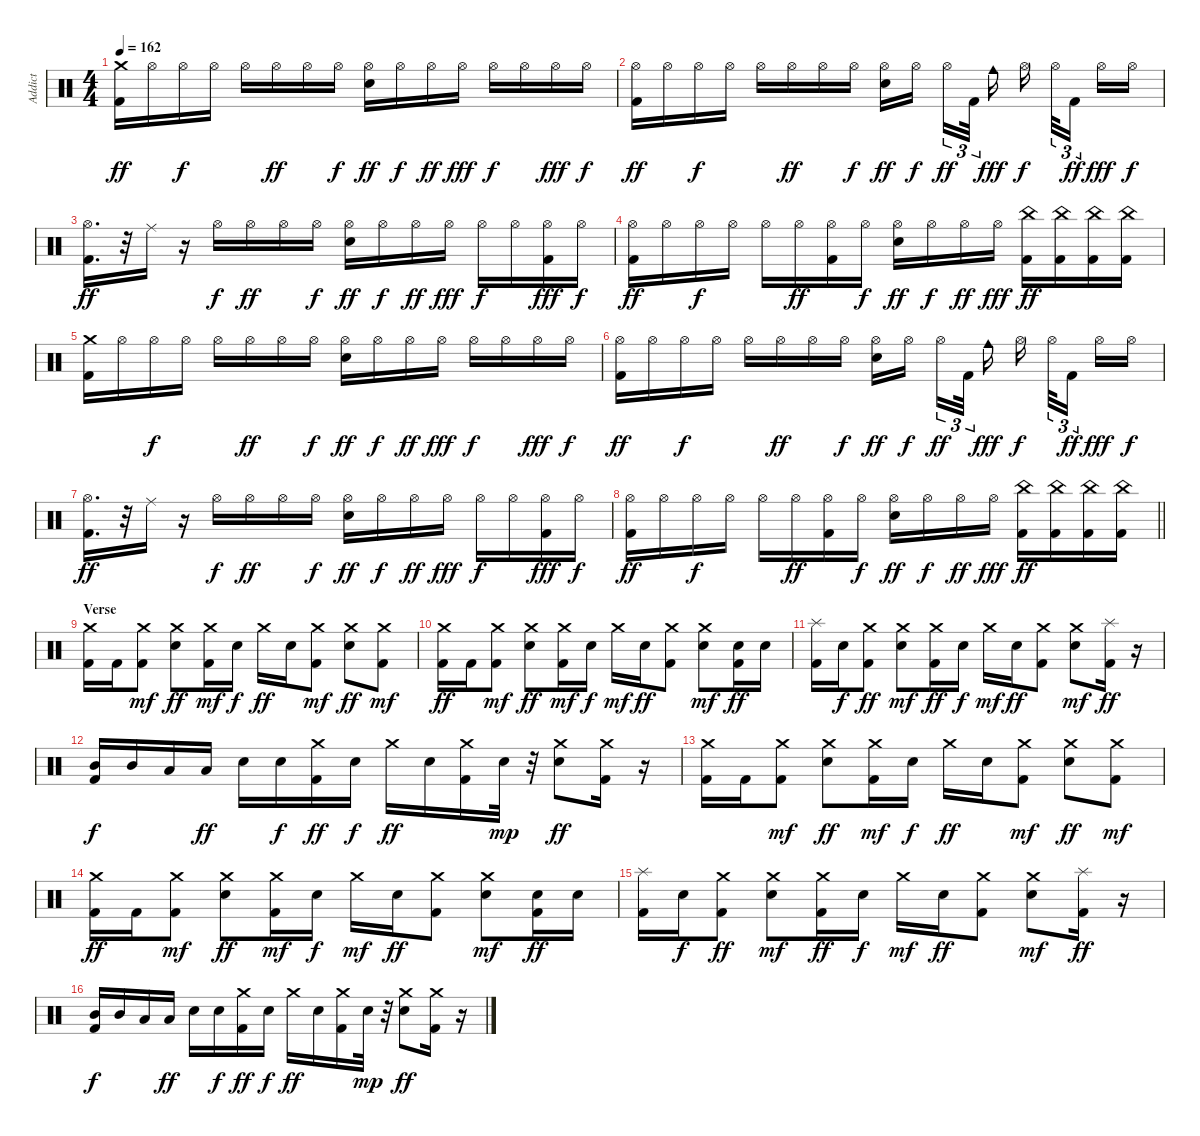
\track ("Addict" "Addict") {instrument percussion}
\staff {score}
\articulation defaults
\ts (4 4)
\tempo 162
\clef neutral
\ks c
("Kick (hit) 2" "Crash medium (hit)").16{dy ff} "Hi-Hat (open)".16 "Hi-Hat (open)".16{dy f} "Hi-Hat (open)".16 "Hi-Hat (open)".16 "Hi-Hat (open)".16{dy ff} "Hi-Hat (open)".16 "Hi-Hat (open)".16{dy f} ("Snare (hit) 2" "Hi-Hat (open)").16{dy ff} "Hi-Hat (open)".16{dy f} "Hi-Hat (open)".16{dy ff} "Hi-Hat (open)".16{dy fff} "Hi-Hat (open)".16{dy f} "Hi-Hat (open)".16 "Hi-Hat (open)".16{dy fff} "Hi-Hat (open)".16{dy f} |
("Kick (hit) 2" "Hi-Hat (open)").16{dy ff} "Hi-Hat (open)".16 "Hi-Hat (open)".16{dy f} "Hi-Hat (open)".16 "Hi-Hat (open)".16 "Hi-Hat (open)".16{dy ff} "Hi-Hat (open)".16 "Hi-Hat (open)".16{dy f} ("Snare (hit) 2" "Hi-Hat (open)").16{dy ff} "Hi-Hat (open)".16{dy f beam splitsecondary} "Hi-Hat (open)".16{tu (3 2) dy ff} "Kick (hit) 2".32{tu (3 2) beam splitsecondary} "Cowbell medium (hit)".16{dy fff} "Hi-Hat (open)".16{dy f beam splitsecondary} "Hi-Hat (open)".32{tu (3 2)} "Kick (hit) 2".16{tu (3 2) dy ff beam splitsecondary} "Hi-Hat (open)".16{dy fff} "Hi-Hat (open)".16{dy f} |
("Kick (hit) 2" "Hi-Hat (open)").16{d dy ff} r.32 "Ride (middle)".16 r.16 "Hi-Hat (open)".16{dy f} "Hi-Hat (open)".16{dy ff} "Hi-Hat (open)".16 "Hi-Hat (open)".16{dy f} ("Snare (hit) 2" "Hi-Hat (open)").16{dy ff} "Hi-Hat (open)".16{dy f} "Hi-Hat (open)".16{dy ff} "Hi-Hat (open)".16{dy fff} "Hi-Hat (open)".16{dy f} "Hi-Hat (open)".16 ("Kick (hit) 2" "Hi-Hat (open)").16{dy fff} "Hi-Hat (open)".16{dy f} |
("Kick (hit) 2" "Hi-Hat (open)").16{dy ff} "Hi-Hat (open)".16 "Hi-Hat (open)".16{dy f} "Hi-Hat (open)".16 "Hi-Hat (open)".16 "Hi-Hat (open)".16{dy ff} ("Kick (hit) 2" "Hi-Hat (open)").16 "Hi-Hat (open)".16{dy f} ("Snare (hit) 2" "Hi-Hat (open)").16{dy ff} "Hi-Hat (open)".16{dy f} "Hi-Hat (open)".16{dy ff} "Hi-Hat (open)".16{dy fff} ("Kick (hit) 2" "China (hit)").16{dy ff} ("Kick (hit) 2" "China (hit)").16 ("Kick (hit) 2" "China (hit)").16 ("Kick (hit) 2" "China (hit)").16 |
("Kick (hit) 2" "Crash medium (hit)").16 "Hi-Hat (open)".16 "Hi-Hat (open)".16{dy f} "Hi-Hat (open)".16 "Hi-Hat (open)".16 "Hi-Hat (open)".16{dy ff} "Hi-Hat (open)".16 "Hi-Hat (open)".16{dy f} ("Snare (hit) 2" "Hi-Hat (open)").16{dy ff} "Hi-Hat (open)".16{dy f} "Hi-Hat (open)".16{dy ff} "Hi-Hat (open)".16{dy fff} "Hi-Hat (open)".16{dy f} "Hi-Hat (open)".16 "Hi-Hat (open)".16{dy fff} "Hi-Hat (open)".16{dy f} |
("Kick (hit) 2" "Hi-Hat (open)").16{dy ff} "Hi-Hat (open)".16 "Hi-Hat (open)".16{dy f} "Hi-Hat (open)".16 "Hi-Hat (open)".16 "Hi-Hat (open)".16{dy ff} "Hi-Hat (open)".16 "Hi-Hat (open)".16{dy f} ("Snare (hit) 2" "Hi-Hat (open)").16{dy ff} "Hi-Hat (open)".16{dy f beam splitsecondary} "Hi-Hat (open)".16{tu (3 2) dy ff} "Kick (hit) 2".32{tu (3 2) beam splitsecondary} "Cowbell medium (hit)".16{dy fff} "Hi-Hat (open)".16{dy f beam splitsecondary} "Hi-Hat (open)".32{tu (3 2)} "Kick (hit) 2".16{tu (3 2) dy ff beam splitsecondary} "Hi-Hat (open)".16{dy fff} "Hi-Hat (open)".16{dy f} |
("Kick (hit) 2" "Hi-Hat (open)").16{d dy ff} r.32 "Ride (middle)".16 r.16 "Hi-Hat (open)".16{dy f} "Hi-Hat (open)".16{dy ff} "Hi-Hat (open)".16 "Hi-Hat (open)".16{dy f} ("Snare (hit) 2" "Hi-Hat (open)").16{dy ff} "Hi-Hat (open)".16{dy f} "Hi-Hat (open)".16{dy ff} "Hi-Hat (open)".16{dy fff} "Hi-Hat (open)".16{dy f} "Hi-Hat (open)".16 ("Kick (hit) 2" "Hi-Hat (open)").16{dy fff} "Hi-Hat (open)".16{dy f} |
\barLineRight lightlight
("Kick (hit) 2" "Hi-Hat (open)").16{dy ff} "Hi-Hat (open)".16 "Hi-Hat (open)".16{dy f} "Hi-Hat (open)".16 "Hi-Hat (open)".16 "Hi-Hat (open)".16{dy ff} ("Kick (hit) 2" "Hi-Hat (open)").16 "Hi-Hat (open)".16{dy f} ("Snare (hit) 2" "Hi-Hat (open)").16{dy ff} "Hi-Hat (open)".16{dy f} "Hi-Hat (open)".16{dy ff} "Hi-Hat (open)".16{dy fff} ("Kick (hit) 2" "China (hit)").16{dy ff} ("Kick (hit) 2" "China (hit)").16 ("Kick (hit) 2" "China (hit)").16 ("Kick (hit) 2" "China (hit)").16 |
\section ("" "Verse")
("Kick (hit) 2" "Crash medium (hit)").16 "Kick (hit) 2".16 ("Kick (hit) 2" "Crash medium (hit)").8{dy mf} ("Snare (hit) 2" "Crash medium (hit)").8{dy ff} ("Kick (hit) 2" "Crash medium (hit)").16{dy mf} "Snare (hit) 2".16{dy f} "Crash medium (hit)".16{dy ff} "Snare (hit) 2".16 ("Kick (hit) 2" "Crash medium (hit)").8{dy mf} ("Snare (hit) 2" "Crash medium (hit)").8{dy ff} ("Kick (hit) 2" "Crash medium (hit)").8{dy mf} |
("Kick (hit) 2" "Crash medium (hit)").16{dy ff} "Kick (hit) 2".16 ("Kick (hit) 2" "Crash medium (hit)").8{dy mf} ("Snare (hit) 2" "Crash medium (hit)").8{dy ff} ("Kick (hit) 2" "Crash medium (hit)").16{dy mf} "Snare (hit) 2".16{dy f} "Crash medium (hit)".16{dy mf} "Snare (hit) 2".16{dy ff} ("Kick (hit) 2" "Crash medium (hit)").8 ("Snare (hit) 2" "Crash medium (hit)").8{dy mf} ("Kick (hit) 2" "Snare (hit) 2").16{dy ff} "Snare (hit) 2".16 |
("Kick (hit) 2" "Splash (hit)").16 "Snare (hit) 2".16{dy f} ("Kick (hit) 2" "Crash medium (hit)").8{dy ff} ("Snare (hit) 2" "Crash medium (hit)").8{dy mf} ("Kick (hit) 2" "Crash medium (hit)").16{dy ff} "Snare (hit) 2".16{dy f} "Crash medium (hit)".16{dy mf} "Snare (hit) 2".16{dy ff} ("Kick (hit) 2" "Crash medium (hit)").8 ("Snare (hit) 2" "Crash medium (hit)").8{dy mf} ("Kick (hit) 2" "Splash (hit)").16{dy ff} r.16 |
("Kick (hit) 2" "Mid Tom (hit)").16{dy f} "Mid Tom (hit)".16 "Low Tom (hit)".16 "Low Tom (hit)".16{dy ff} "Snare (hit) 2".16 "Snare (hit) 2".16{dy f} ("Kick (hit) 2" "Crash medium (hit)").16{dy ff} "Snare (hit) 2".16{dy f} "Crash medium (hit)".16{dy ff} "Snare (hit) 2".16 ("Kick (hit) 2" "Crash medium (hit)").16 "Snare (hit) 2".32{dy mp} r.32 ("Snare (hit) 2" "Crash medium (hit)").8{dy ff} ("Kick (hit) 2" "Crash medium (hit)").16 r.16 |
("Kick (hit) 2" "Crash medium (hit)").16 "Kick (hit) 2".16 ("Kick (hit) 2" "Crash medium (hit)").8{dy mf} ("Snare (hit) 2" "Crash medium (hit)").8{dy ff} ("Kick (hit) 2" "Crash medium (hit)").16{dy mf} "Snare (hit) 2".16{dy f} "Crash medium (hit)".16{dy ff} "Snare (hit) 2".16 ("Kick (hit) 2" "Crash medium (hit)").8{dy mf} ("Snare (hit) 2" "Crash medium (hit)").8{dy ff} ("Kick (hit) 2" "Crash medium (hit)").8{dy mf} |
("Kick (hit) 2" "Crash medium (hit)").16{dy ff} "Kick (hit) 2".16 ("Kick (hit) 2" "Crash medium (hit)").8{dy mf} ("Snare (hit) 2" "Crash medium (hit)").8{dy ff} ("Kick (hit) 2" "Crash medium (hit)").16{dy mf} "Snare (hit) 2".16{dy f} "Crash medium (hit)".16{dy mf} "Snare (hit) 2".16{dy ff} ("Kick (hit) 2" "Crash medium (hit)").8 ("Snare (hit) 2" "Crash medium (hit)").8{dy mf} ("Kick (hit) 2" "Snare (hit) 2").16{dy ff} "Snare (hit) 2".16 |
("Kick (hit) 2" "Splash (hit)").16 "Snare (hit) 2".16{dy f} ("Kick (hit) 2" "Crash medium (hit)").8{dy ff} ("Snare (hit) 2" "Crash medium (hit)").8{dy mf} ("Kick (hit) 2" "Crash medium (hit)").16{dy ff} "Snare (hit) 2".16{dy f} "Crash medium (hit)".16{dy mf} "Snare (hit) 2".16{dy ff} ("Kick (hit) 2" "Crash medium (hit)").8 ("Snare (hit) 2" "Crash medium (hit)").8{dy mf} ("Kick (hit) 2" "Splash (hit)").16{dy ff} r.16 |
("Kick (hit) 2" "Mid Tom (hit)").16{dy f} "Mid Tom (hit)".16 "Low Tom (hit)".16 "Low Tom (hit)".16{dy ff} "Snare (hit) 2".16 "Snare (hit) 2".16{dy f} ("Kick (hit) 2" "Crash medium (hit)").16{dy ff} "Snare (hit) 2".16{dy f} "Crash medium (hit)".16{dy ff} "Snare (hit) 2".16 ("Kick (hit) 2" "Crash medium (hit)").16 "Snare (hit) 2".32{dy mp} r.32 ("Snare (hit) 2" "Crash medium (hit)").8{dy ff} ("Kick (hit) 2" "Crash medium (hit)").16 r.16
